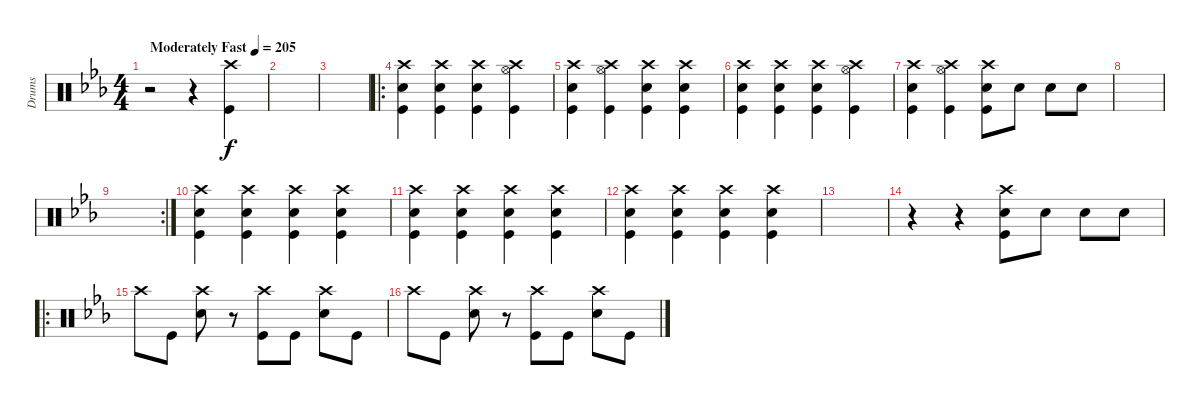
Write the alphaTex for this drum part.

\track ("Drums" "Drums") {instrument percussion}
\staff {score}
\articulation defaults
\ts (4 4)
\tempo (205 "Moderately Fast")
\clef neutral
\ks eb
r.2{dy f} r.4 ("Crash high (hit)" "Kick (hit)").4 |
|
|
\ro
("Snare (hit) 2" "Crash high (hit)" "Kick (hit)").4 ("Snare (hit) 2" "Crash high (hit)" "Kick (hit)").4 ("Snare (hit) 2" "Crash high (hit)" "Kick (hit)").4 ("Hi-Hat (open)" "Crash high (hit)" "Kick (hit)").4 |
("Snare (hit) 2" "Crash high (hit)" "Kick (hit)").4 ("Hi-Hat (open)" "Crash high (hit)" "Kick (hit)").4 ("Snare (hit) 2" "Crash high (hit)" "Kick (hit)").4 ("Snare (hit) 2" "Crash high (hit)" "Kick (hit)").4 |
("Snare (hit) 2" "Crash high (hit)" "Kick (hit)").4 ("Snare (hit) 2" "Crash high (hit)" "Kick (hit)").4 ("Snare (hit) 2" "Crash high (hit)" "Kick (hit)").4 ("Hi-Hat (open)" "Crash high (hit)" "Kick (hit)").4 |
("Snare (hit) 2" "Crash high (hit)" "Kick (hit)").4 ("Hi-Hat (open)" "Crash high (hit)" "Kick (hit)").4 ("Snare (hit) 2" "Crash high (hit)" "Kick (hit)").8 "Snare (hit) 2".8 "Snare (hit) 2".8 "Snare (hit) 2".8 |
|
\rc 2
|
("Snare (hit) 2" "Crash high (hit)" "Kick (hit)").4 ("Snare (hit) 2" "Crash high (hit)" "Kick (hit)").4 ("Snare (hit) 2" "Crash high (hit)" "Kick (hit)").4 ("Snare (hit) 2" "Crash high (hit)" "Kick (hit)").4 |
("Snare (hit) 2" "Crash high (hit)" "Kick (hit)").4 ("Snare (hit) 2" "Crash high (hit)" "Kick (hit)").4 ("Snare (hit) 2" "Crash high (hit)" "Kick (hit)").4 ("Snare (hit) 2" "Crash high (hit)" "Kick (hit)").4 |
("Snare (hit) 2" "Crash high (hit)" "Kick (hit)").4 ("Snare (hit) 2" "Crash high (hit)" "Kick (hit)").4 ("Snare (hit) 2" "Crash high (hit)" "Kick (hit)").4 ("Snare (hit) 2" "Crash high (hit)" "Kick (hit)").4 |
|
r.4 r.4 ("Snare (hit) 2" "Crash high (hit)" "Kick (hit)").8 "Snare (hit) 2".8 "Snare (hit) 2".8 "Snare (hit) 2".8 |
\ro "Crash high (hit)".8 "Kick (hit)".8
("Crash high (hit)" "Snare (hit) 2").8 r.8 ("Crash high (hit)" "Kick (hit)").8 "Kick (hit)".8 ("Crash high (hit)" "Snare (hit) 2").8 "Kick (hit)".8 |
"Crash high (hit)".8 "Kick (hit)".8 ("Crash high (hit)" "Snare (hit) 2").8 r.8 ("Crash high (hit)" "Kick (hit)").8 "Kick (hit)".8 ("Crash high (hit)" "Snare (hit) 2").8 "Kick (hit)".8
